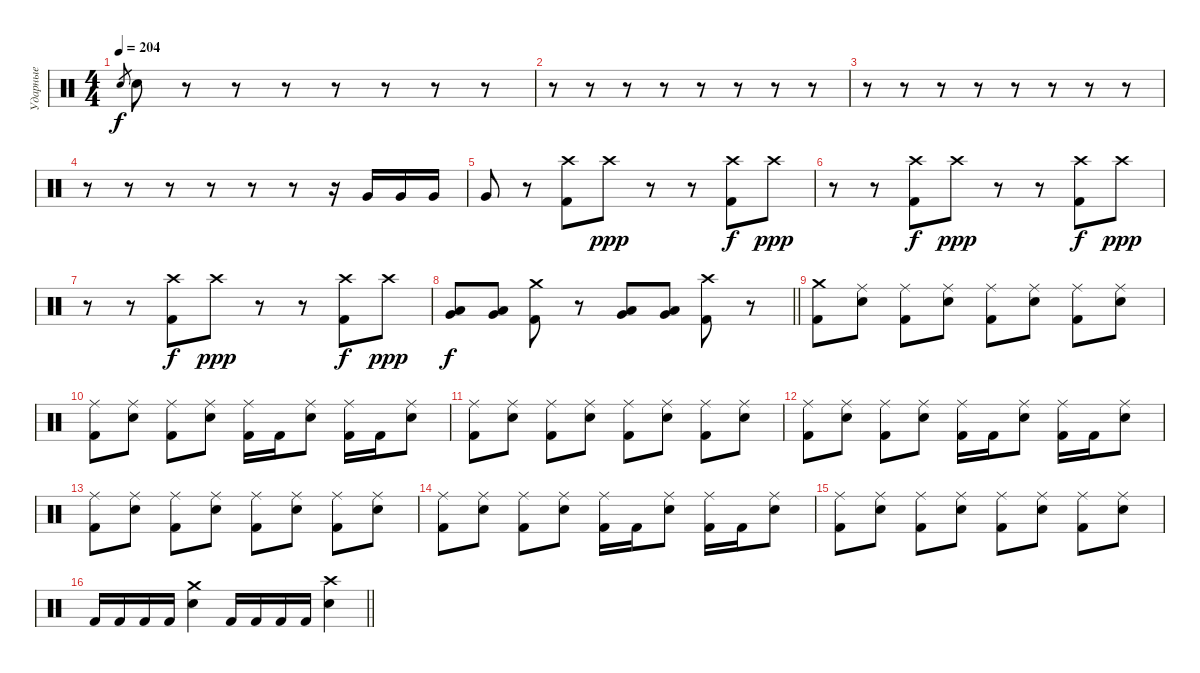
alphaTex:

\track ("Ударные" "Ударные") {instrument percussion}
\staff {score}
\articulation defaults
\ts (4 4)
\tempo 204
\clef neutral
\ks c "Snare (hit) 2".8{gr dy f} "Snare (hit) 2".8
r.8 r.8 r.8 r.8 r.8 r.8 r.8 |
r.8 r.8 r.8 r.8 r.8 r.8 r.8 r.8 |
r.8 r.8 r.8 r.8 r.8 r.8 r.8 r.8 |
r.8 r.8 r.8 r.8 r.8 r.8 r.16 "Very Low Tom (hit)".16 "Very Low Tom (hit)".16 "Very Low Tom (hit)".16 |
"Very Low Tom (hit)".8 r.8 ("Crash high (hit)" "Kick (hit) 2").8 "Crash high (hit)".8{dy ppp} r.8 r.8 ("Crash high (hit)" "Kick (hit) 2").8{dy f} "Crash high (hit)".8{dy ppp} |
r.8 r.8 ("Crash high (hit)" "Kick (hit) 2").8{dy f} "Crash high (hit)".8{dy ppp} r.8 r.8 ("Crash high (hit)" "Kick (hit) 2").8{dy f} "Crash high (hit)".8{dy ppp} |
r.8 r.8 ("Crash high (hit)" "Kick (hit) 2").8{dy f} "Crash high (hit)".8{dy ppp} r.8 r.8 ("Crash high (hit)" "Kick (hit) 2").8{dy f} "Crash high (hit)".8{dy ppp} |
\barLineRight lightlight
("Low Tom (hit)" "Very Low Tom (hit)").8{dy f} ("Low Tom (hit)" "Very Low Tom (hit)").8 ("Crash medium (hit)" "Kick (hit) 2").8 r.8 ("Low Tom (hit)" "Very Low Tom (hit)").8 ("Low Tom (hit)" "Very Low Tom (hit)").8 ("Crash high (hit)" "Kick (hit) 2").8 r.8 |
("Crash medium (hit)" "Kick (hit) 2").8 ("Ride (middle)" "Snare (hit) 2").8 ("Ride (middle)" "Kick (hit) 2").8 ("Ride (middle)" "Snare (hit) 2").8 ("Ride (middle)" "Kick (hit) 2").8 ("Ride (middle)" "Snare (hit) 2").8 ("Ride (middle)" "Kick (hit) 2").8 ("Ride (middle)" "Snare (hit) 2").8 |
("Ride (middle)" "Kick (hit) 2").8 ("Ride (middle)" "Snare (hit) 2").8 ("Ride (middle)" "Kick (hit) 2").8 ("Ride (middle)" "Snare (hit) 2").8 ("Ride (middle)" "Kick (hit) 2").16 "Kick (hit) 2".16 ("Ride (middle)" "Snare (hit) 2").8 ("Ride (middle)" "Kick (hit) 2").16 "Kick (hit) 2".16 ("Ride (middle)" "Snare (hit) 2").8 |
("Ride (middle)" "Kick (hit) 2").8 ("Ride (middle)" "Snare (hit) 2").8 ("Ride (middle)" "Kick (hit) 2").8 ("Ride (middle)" "Snare (hit) 2").8 ("Ride (middle)" "Kick (hit) 2").8 ("Ride (middle)" "Snare (hit) 2").8 ("Ride (middle)" "Kick (hit) 2").8 ("Ride (middle)" "Snare (hit) 2").8 |
("Ride (middle)" "Kick (hit) 2").8 ("Ride (middle)" "Snare (hit) 2").8 ("Ride (middle)" "Kick (hit) 2").8 ("Ride (middle)" "Snare (hit) 2").8 ("Ride (middle)" "Kick (hit) 2").16 "Kick (hit) 2".16 ("Ride (middle)" "Snare (hit) 2").8 ("Ride (middle)" "Kick (hit) 2").16 "Kick (hit) 2".16 ("Ride (middle)" "Snare (hit) 2").8 |
("Ride (middle)" "Kick (hit) 2").8 ("Ride (middle)" "Snare (hit) 2").8 ("Ride (middle)" "Kick (hit) 2").8 ("Ride (middle)" "Snare (hit) 2").8 ("Ride (middle)" "Kick (hit) 2").8 ("Ride (middle)" "Snare (hit) 2").8 ("Ride (middle)" "Kick (hit) 2").8 ("Ride (middle)" "Snare (hit) 2").8 |
("Ride (middle)" "Kick (hit) 2").8 ("Ride (middle)" "Snare (hit) 2").8 ("Ride (middle)" "Kick (hit) 2").8 ("Ride (middle)" "Snare (hit) 2").8 ("Ride (middle)" "Kick (hit) 2").16 "Kick (hit) 2".16 ("Ride (middle)" "Snare (hit) 2").8 ("Ride (middle)" "Kick (hit) 2").16 "Kick (hit) 2".16 ("Ride (middle)" "Snare (hit) 2").8 |
("Ride (middle)" "Kick (hit) 2").8 ("Ride (middle)" "Snare (hit) 2").8 ("Ride (middle)" "Kick (hit) 2").8 ("Ride (middle)" "Snare (hit) 2").8 ("Ride (middle)" "Kick (hit) 2").8 ("Ride (middle)" "Snare (hit) 2").8 ("Ride (middle)" "Kick (hit) 2").8 ("Ride (middle)" "Snare (hit) 2").8 |
\barLineRight lightlight "Kick (hit) 2".16 "Kick (hit) 2".16 "Kick (hit) 2".16 "Kick (hit) 2".16
("Crash medium (hit)" "Snare (hit) 2").4 "Kick (hit) 2".16 "Kick (hit) 2".16 "Kick (hit) 2".16 "Kick (hit) 2".16 ("Crash high (hit)" "Snare (hit) 2").4
